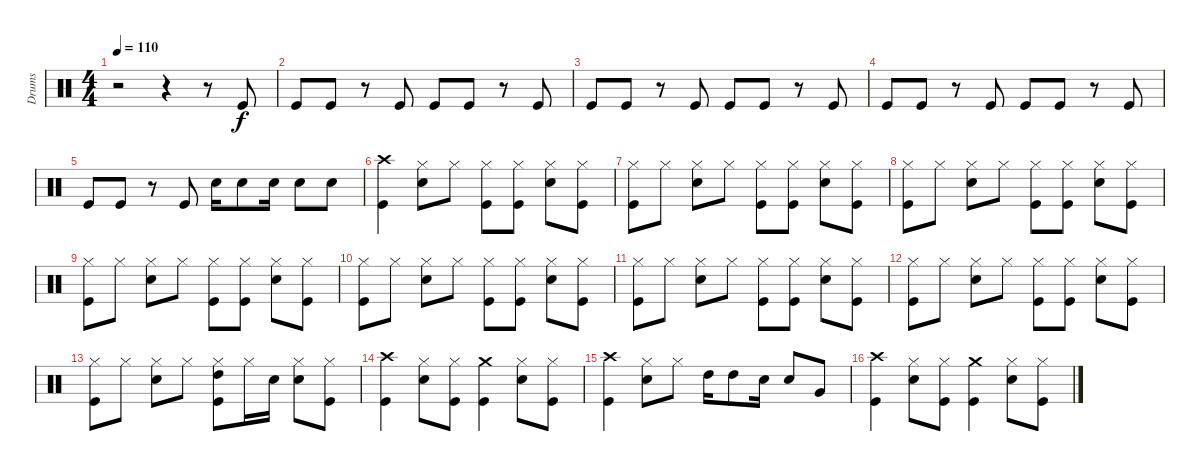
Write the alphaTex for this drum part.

\track ("Drums" "Drums") {instrument percussion}
\staff {score}
\articulation defaults
\ts (4 4)
\tempo 110
\clef neutral
\ks c
r.2{dy f} r.4 r.8 "Kick (hit)".8 |
"Kick (hit)".8 "Kick (hit)".8 r.8 "Kick (hit)".8 "Kick (hit)".8 "Kick (hit)".8 r.8 "Kick (hit)".8 |
"Kick (hit)".8 "Kick (hit)".8 r.8 "Kick (hit)".8 "Kick (hit)".8 "Kick (hit)".8 r.8 "Kick (hit)".8 |
"Kick (hit)".8 "Kick (hit)".8 r.8 "Kick (hit)".8 "Kick (hit)".8 "Kick (hit)".8 r.8 "Kick (hit)".8 |
"Kick (hit)".8 "Kick (hit)".8 r.8 "Kick (hit)".8 "Snare (hit) 2".16 "Snare (hit) 2".8 "Snare (hit) 2".16 "Snare (hit) 2".8 "Snare (hit) 2".8 |
("Crash high (hit)" "Kick (hit)").4 ("Hi-Hat (closed)" "Snare (hit) 2").8 "Hi-Hat (closed)".8 ("Hi-Hat (closed)" "Kick (hit)").8 ("Hi-Hat (closed)" "Kick (hit)").8 ("Hi-Hat (closed)" "Snare (hit) 2").8 ("Hi-Hat (closed)" "Kick (hit)").8 |
("Hi-Hat (closed)" "Kick (hit)").8 "Hi-Hat (closed)".8 ("Hi-Hat (closed)" "Snare (hit) 2").8 "Hi-Hat (closed)".8 ("Hi-Hat (closed)" "Kick (hit)").8 ("Hi-Hat (closed)" "Kick (hit)").8 ("Hi-Hat (closed)" "Snare (hit) 2").8 ("Hi-Hat (closed)" "Kick (hit)").8 |
("Hi-Hat (closed)" "Kick (hit)").8 "Hi-Hat (closed)".8 ("Hi-Hat (closed)" "Snare (hit) 2").8 "Hi-Hat (closed)".8 ("Hi-Hat (closed)" "Kick (hit)").8 ("Hi-Hat (closed)" "Kick (hit)").8 ("Hi-Hat (closed)" "Snare (hit) 2").8 ("Hi-Hat (closed)" "Kick (hit)").8 |
("Hi-Hat (closed)" "Kick (hit)").8 "Hi-Hat (closed)".8 ("Hi-Hat (closed)" "Snare (hit) 2").8 "Hi-Hat (closed)".8 ("Hi-Hat (closed)" "Kick (hit)").8 ("Hi-Hat (closed)" "Kick (hit)").8 ("Hi-Hat (closed)" "Snare (hit) 2").8 ("Hi-Hat (closed)" "Kick (hit)").8 |
("Hi-Hat (closed)" "Kick (hit)").8 "Hi-Hat (closed)".8 ("Hi-Hat (closed)" "Snare (hit) 2").8 "Hi-Hat (closed)".8 ("Hi-Hat (closed)" "Kick (hit)").8 ("Hi-Hat (closed)" "Kick (hit)").8 ("Hi-Hat (closed)" "Snare (hit) 2").8 ("Hi-Hat (closed)" "Kick (hit)").8 |
("Hi-Hat (closed)" "Kick (hit)").8 "Hi-Hat (closed)".8 ("Hi-Hat (closed)" "Snare (hit) 2").8 "Hi-Hat (closed)".8 ("Hi-Hat (closed)" "Kick (hit)").8 ("Hi-Hat (closed)" "Kick (hit)").8 ("Hi-Hat (closed)" "Snare (hit) 2").8 ("Hi-Hat (closed)" "Kick (hit)").8 |
("Hi-Hat (closed)" "Kick (hit)").8 "Hi-Hat (closed)".8 ("Hi-Hat (closed)" "Snare (hit) 2").8 "Hi-Hat (closed)".8 ("Hi-Hat (closed)" "Kick (hit)").8 ("Hi-Hat (closed)" "Kick (hit)").8 ("Hi-Hat (closed)" "Snare (hit) 2").8 ("Hi-Hat (closed)" "Kick (hit)").8 |
("Hi-Hat (closed)" "Kick (hit)").8 "Hi-Hat (closed)".8 ("Hi-Hat (closed)" "Snare (hit) 2").8 "Hi-Hat (closed)".8 ("Hi-Hat (closed)" "High Tom (hit)" "Kick (hit)").8 "Hi-Hat (closed)".16 "Snare (hit) 2".16 ("Hi-Hat (closed)" "Snare (hit) 2").8 ("Hi-Hat (closed)" "Kick (hit)").8 |
("Crash high (hit)" "Kick (hit)").4 ("Hi-Hat (closed)" "Snare (hit) 2").8 ("Hi-Hat (closed)" "Kick (hit)").8 ("Crash medium (hit)" "Kick (hit)").4 ("Hi-Hat (closed)" "Snare (hit) 2").8 ("Hi-Hat (closed)" "Kick (hit)").8 |
("Crash high (hit)" "Kick (hit)").4 ("Hi-Hat (closed)" "Snare (hit) 2").8 "Hi-Hat (closed)".8 "High Tom (hit)".16 "High Tom (hit)".8 "Snare (hit) 2".16 "Snare (hit) 2".8 "Very Low Tom (hit)".8 |
("Crash high (hit)" "Kick (hit)").4 ("Hi-Hat (closed)" "Snare (hit) 2").8 ("Hi-Hat (closed)" "Kick (hit)").8 ("Crash medium (hit)" "Kick (hit)").4 ("Hi-Hat (closed)" "Snare (hit) 2").8 ("Hi-Hat (closed)" "Kick (hit)").8
